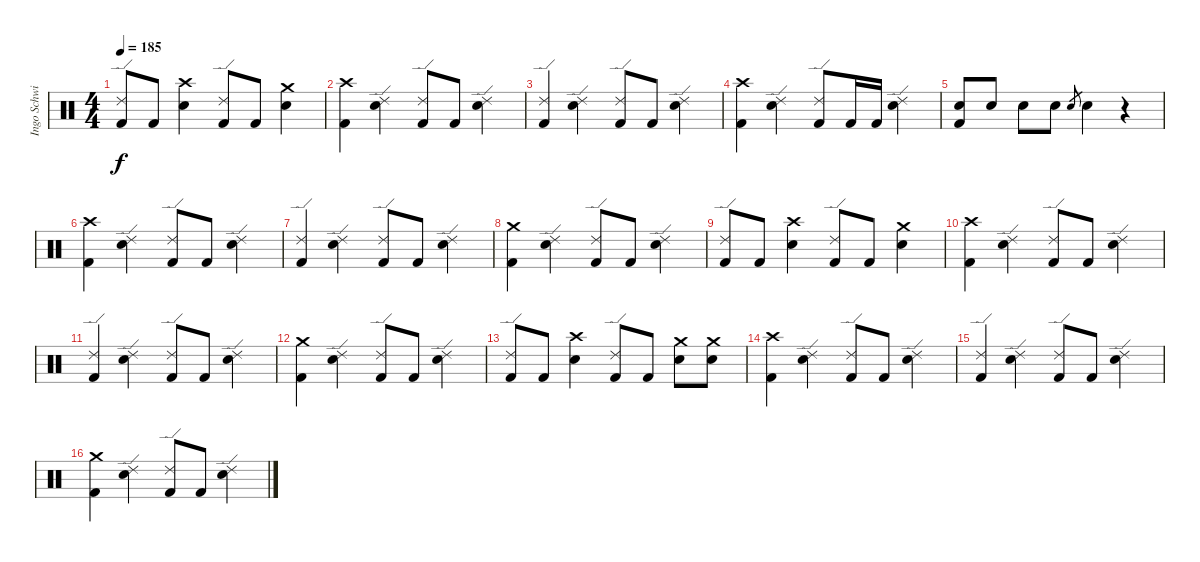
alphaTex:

\track ("Ingo Schwischtenberg" "Ingo Schwi") {instrument percussion}
\staff {score}
\articulation defaults
\ts (4 4)
\tempo 185
\clef neutral
\ks c
("Ride (edge) 2" "Kick (hit) 2").8{dy f} "Kick (hit) 2".8 ("Crash high (hit)" "Electric Snare (hit)").4 ("Ride (edge) 2" "Kick (hit) 2").8 "Kick (hit) 2".8 ("Crash medium (hit)" "Electric Snare (hit)").4 |
("Crash high (hit)" "Kick (hit) 2").4 ("Ride (edge) 2" "Electric Snare (hit)").4 ("Ride (edge) 2" "Kick (hit) 2").8 "Kick (hit) 2".8 ("Ride (edge) 2" "Electric Snare (hit)").4 |
("Ride (edge) 2" "Kick (hit) 2").4 ("Ride (edge) 2" "Electric Snare (hit)").4 ("Ride (edge) 2" "Kick (hit) 2").8 "Kick (hit) 2".8 ("Ride (edge) 2" "Electric Snare (hit)").4 |
("Crash high (hit)" "Kick (hit) 2").4 ("Ride (edge) 2" "Electric Snare (hit)").4 ("Ride (edge) 2" "Kick (hit) 2").8 "Kick (hit) 2".16 "Kick (hit) 2".16 ("Ride (edge) 2" "Electric Snare (hit)").4 |
("Electric Snare (hit)" "Kick (hit) 2").8 "Electric Snare (hit)".8 "Electric Snare (hit)".8 "Electric Snare (hit)".8 "Electric Snare (hit)".8{gr} "Electric Snare (hit)".4 r.4 |
("Crash high (hit)" "Kick (hit) 2").4 ("Ride (edge) 2" "Electric Snare (hit)").4 ("Ride (edge) 2" "Kick (hit) 2").8 "Kick (hit) 2".8 ("Ride (edge) 2" "Electric Snare (hit)").4 |
("Ride (edge) 2" "Kick (hit) 2").4 ("Ride (edge) 2" "Electric Snare (hit)").4 ("Ride (edge) 2" "Kick (hit) 2").8 "Kick (hit) 2".8 ("Ride (edge) 2" "Electric Snare (hit)").4 |
("Crash medium (hit)" "Kick (hit) 2").4 ("Ride (edge) 2" "Electric Snare (hit)").4 ("Ride (edge) 2" "Kick (hit) 2").8 "Kick (hit) 2".8 ("Ride (edge) 2" "Electric Snare (hit)").4 |
("Ride (edge) 2" "Kick (hit) 2").8 "Kick (hit) 2".8 ("Crash high (hit)" "Electric Snare (hit)").4 ("Ride (edge) 2" "Kick (hit) 2").8 "Kick (hit) 2".8 ("Crash medium (hit)" "Electric Snare (hit)").4 |
("Crash high (hit)" "Kick (hit) 2").4 ("Ride (edge) 2" "Electric Snare (hit)").4 ("Ride (edge) 2" "Kick (hit) 2").8 "Kick (hit) 2".8 ("Ride (edge) 2" "Electric Snare (hit)").4 |
("Ride (edge) 2" "Kick (hit) 2").4 ("Ride (edge) 2" "Electric Snare (hit)").4 ("Ride (edge) 2" "Kick (hit) 2").8 "Kick (hit) 2".8 ("Ride (edge) 2" "Electric Snare (hit)").4 |
("Crash medium (hit)" "Kick (hit) 2").4 ("Ride (edge) 2" "Electric Snare (hit)").4 ("Ride (edge) 2" "Kick (hit) 2").8 "Kick (hit) 2".8 ("Ride (edge) 2" "Electric Snare (hit)").4 |
("Ride (edge) 2" "Kick (hit) 2").8 "Kick (hit) 2".8 ("Crash high (hit)" "Electric Snare (hit)").4 ("Ride (edge) 2" "Kick (hit) 2").8 "Kick (hit) 2".8 ("Crash medium (hit)" "Electric Snare (hit)").8 ("Crash medium (hit)" "Electric Snare (hit)").8 |
("Crash high (hit)" "Kick (hit) 2").4 ("Ride (edge) 2" "Electric Snare (hit)").4 ("Ride (edge) 2" "Kick (hit) 2").8 "Kick (hit) 2".8 ("Ride (edge) 2" "Electric Snare (hit)").4 |
("Ride (edge) 2" "Kick (hit) 2").4 ("Ride (edge) 2" "Electric Snare (hit)").4 ("Ride (edge) 2" "Kick (hit) 2").8 "Kick (hit) 2".8 ("Ride (edge) 2" "Electric Snare (hit)").4 |
("Crash medium (hit)" "Kick (hit) 2").4 ("Ride (edge) 2" "Electric Snare (hit)").4 ("Ride (edge) 2" "Kick (hit) 2").8 "Kick (hit) 2".8 ("Ride (edge) 2" "Electric Snare (hit)").4
